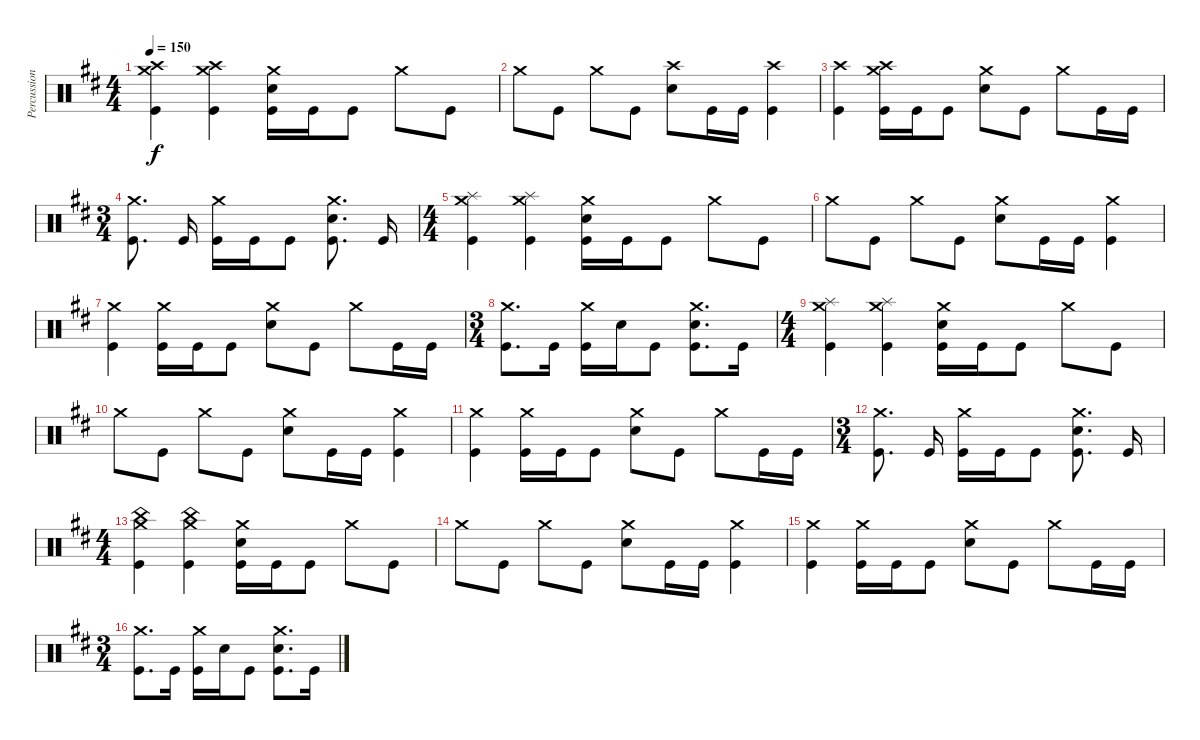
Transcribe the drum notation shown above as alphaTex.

\track ("Percussion" "Percussion") {instrument percussion}
\staff {score}
\articulation defaults
\ts (4 4)
\tempo 150
\clef neutral
\ks bminor
("Crash medium (hit)" "Crash high (hit)" "Kick (hit)").4{dy f} ("Crash medium (hit)" "Crash high (hit)" "Kick (hit)").4 ("Crash medium (hit)" "Electric Snare (hit)" "Kick (hit)").16 "Kick (hit)".16 "Kick (hit)".8 "Crash medium (hit)".8 "Kick (hit)".8 |
"Crash medium (hit)".8 "Kick (hit)".8 "Crash medium (hit)".8 "Kick (hit)".8 ("Crash high (hit)" "Electric Snare (hit)").8 "Kick (hit)".16 "Kick (hit)".16 ("Crash high (hit)" "Kick (hit)").4 |
("Crash high (hit)" "Kick (hit)").4 ("Crash medium (hit)" "Crash high (hit)" "Kick (hit)").16 "Kick (hit)".16 "Kick (hit)".8 ("Crash medium (hit)" "Electric Snare (hit)").8 "Kick (hit)".8 "Crash medium (hit)".8 "Kick (hit)".16 "Kick (hit)".16 |
\ts (3 4)
("Crash medium (hit)" "Kick (hit)").8{d beam split} "Kick (hit)".16 ("Crash medium (hit)" "Kick (hit)").16 "Kick (hit)".16 "Kick (hit)".8 ("Crash medium (hit)" "Electric Snare (hit)" "Kick (hit)").8{d beam split} "Kick (hit)".16 |
\ts (4 4)
("Crash medium (hit)" "Splash (hit)" "Kick (hit)").4 ("Crash medium (hit)" "Splash (hit)" "Kick (hit)").4 ("Crash medium (hit)" "Electric Snare (hit)" "Kick (hit)").16 "Kick (hit)".16 "Kick (hit)".8 "Crash medium (hit)".8 "Kick (hit)".8 |
"Crash medium (hit)".8 "Kick (hit)".8 "Crash medium (hit)".8 "Kick (hit)".8 ("Crash medium (hit)" "Electric Snare (hit)").8 "Kick (hit)".16 "Kick (hit)".16 ("Crash medium (hit)" "Kick (hit)").4 |
("Crash medium (hit)" "Kick (hit)").4 ("Crash medium (hit)" "Kick (hit)").16 "Kick (hit)".16 "Kick (hit)".8 ("Crash medium (hit)" "Electric Snare (hit)").8 "Kick (hit)".8 "Crash medium (hit)".8 "Kick (hit)".16 "Kick (hit)".16 |
\ts (3 4)
("Crash medium (hit)" "Kick (hit)").8{d} "Kick (hit)".16 ("Crash medium (hit)" "Kick (hit)").16 "Electric Snare (hit)".16 "Kick (hit)".8 ("Crash medium (hit)" "Electric Snare (hit)" "Kick (hit)").8{d} "Kick (hit)".16 |
\ts (4 4)
("Crash medium (hit)" "Splash (hit)" "Kick (hit)").4 ("Crash medium (hit)" "Splash (hit)" "Kick (hit)").4 ("Crash medium (hit)" "Electric Snare (hit)" "Kick (hit)").16 "Kick (hit)".16 "Kick (hit)".8 "Crash medium (hit)".8 "Kick (hit)".8 |
"Crash medium (hit)".8 "Kick (hit)".8 "Crash medium (hit)".8 "Kick (hit)".8 ("Crash medium (hit)" "Electric Snare (hit)").8 "Kick (hit)".16 "Kick (hit)".16 ("Crash medium (hit)" "Kick (hit)").4 |
("Crash medium (hit)" "Kick (hit)").4 ("Crash medium (hit)" "Kick (hit)").16 "Kick (hit)".16 "Kick (hit)".8 ("Crash medium (hit)" "Electric Snare (hit)").8 "Kick (hit)".8 "Crash medium (hit)".8 "Kick (hit)".16 "Kick (hit)".16 |
\ts (3 4)
("Crash medium (hit)" "Kick (hit)").8{d beam split} "Kick (hit)".16 ("Crash medium (hit)" "Kick (hit)").16 "Kick (hit)".16 "Kick (hit)".8 ("Crash medium (hit)" "Electric Snare (hit)" "Kick (hit)").8{d beam split} "Kick (hit)".16 |
\ts (4 4)
("Crash medium (hit)" "China (hit)" "Kick (hit)").4 ("Crash medium (hit)" "China (hit)" "Kick (hit)").4 ("Crash medium (hit)" "Electric Snare (hit)" "Kick (hit)").16 "Kick (hit)".16 "Kick (hit)".8 "Crash medium (hit)".8 "Kick (hit)".8 |
"Crash medium (hit)".8 "Kick (hit)".8 "Crash medium (hit)".8 "Kick (hit)".8 ("Crash medium (hit)" "Electric Snare (hit)").8 "Kick (hit)".16 "Kick (hit)".16 ("Crash medium (hit)" "Kick (hit)").4 |
("Crash medium (hit)" "Kick (hit)").4 ("Crash medium (hit)" "Kick (hit)").16 "Kick (hit)".16 "Kick (hit)".8 ("Crash medium (hit)" "Electric Snare (hit)").8 "Kick (hit)".8 "Crash medium (hit)".8 "Kick (hit)".16 "Kick (hit)".16 |
\ts (3 4)
("Crash medium (hit)" "Kick (hit)").8{d} "Kick (hit)".16 ("Crash medium (hit)" "Kick (hit)").16 "Electric Snare (hit)".16 "Kick (hit)".8 ("Crash medium (hit)" "Electric Snare (hit)" "Kick (hit)").8{d} "Kick (hit)".16
